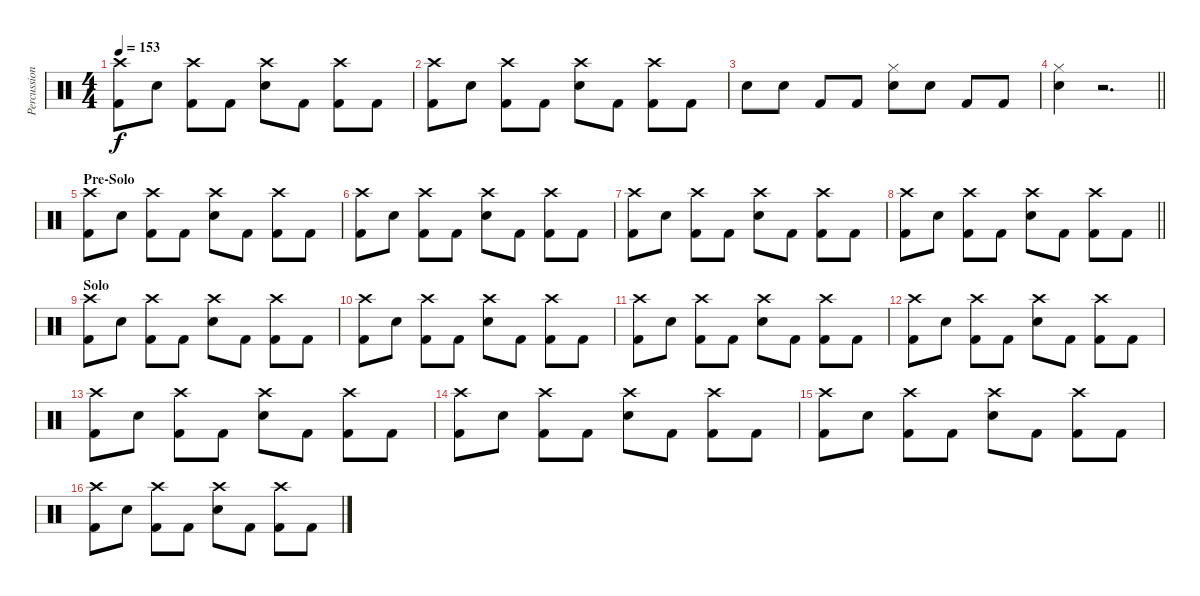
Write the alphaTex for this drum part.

\track ("Percussion" "Percussion") {instrument percussion}
\staff {score}
\articulation defaults
\ts (4 4)
\tempo 153
\clef neutral
\ks c
("Kick (hit) 2" "Crash high (hit)").8{dy f} "Snare (hit) 2".8 ("Kick (hit) 2" "Crash high (hit)").8 "Kick (hit) 2".8 ("Snare (hit) 2" "Crash high (hit)").8 "Kick (hit) 2".8 ("Kick (hit) 2" "Crash high (hit)").8 "Kick (hit) 2".8 |
("Kick (hit) 2" "Crash high (hit)").8 "Snare (hit) 2".8 ("Kick (hit) 2" "Crash high (hit)").8 "Kick (hit) 2".8 ("Snare (hit) 2" "Crash high (hit)").8 "Kick (hit) 2".8 ("Kick (hit) 2" "Crash high (hit)").8 "Kick (hit) 2".8 |
"Snare (hit) 2".8 "Snare (hit) 2".8 "Kick (hit) 2".8 "Kick (hit) 2".8 ("Snare (hit) 2" "Hi-Hat (closed)").8 "Snare (hit) 2".8 "Kick (hit) 2".8 "Kick (hit) 2".8 |
\barLineRight lightlight
("Snare (hit) 2" "Hi-Hat (closed)").4 r.2{d} |
\section ("" "Pre-Solo")
("Kick (hit) 2" "Crash high (hit)").8 "Snare (hit) 2".8 ("Kick (hit) 2" "Crash high (hit)").8 "Kick (hit) 2".8 ("Snare (hit) 2" "Crash high (hit)").8 "Kick (hit) 2".8 ("Kick (hit) 2" "Crash high (hit)").8 "Kick (hit) 2".8 |
("Kick (hit) 2" "Crash high (hit)").8 "Snare (hit) 2".8 ("Kick (hit) 2" "Crash high (hit)").8 "Kick (hit) 2".8 ("Snare (hit) 2" "Crash high (hit)").8 "Kick (hit) 2".8 ("Kick (hit) 2" "Crash high (hit)").8 "Kick (hit) 2".8 |
("Kick (hit) 2" "Crash high (hit)").8 "Snare (hit) 2".8 ("Kick (hit) 2" "Crash high (hit)").8 "Kick (hit) 2".8 ("Snare (hit) 2" "Crash high (hit)").8 "Kick (hit) 2".8 ("Kick (hit) 2" "Crash high (hit)").8 "Kick (hit) 2".8 |
\barLineRight lightlight
("Kick (hit) 2" "Crash high (hit)").8 "Snare (hit) 2".8 ("Kick (hit) 2" "Crash high (hit)").8 "Kick (hit) 2".8 ("Snare (hit) 2" "Crash high (hit)").8 "Kick (hit) 2".8 ("Kick (hit) 2" "Crash high (hit)").8 "Kick (hit) 2".8 |
\section ("" "Solo")
("Kick (hit) 2" "Crash high (hit)").8 "Snare (hit) 2".8 ("Kick (hit) 2" "Crash high (hit)").8 "Kick (hit) 2".8 ("Snare (hit) 2" "Crash high (hit)").8 "Kick (hit) 2".8 ("Kick (hit) 2" "Crash high (hit)").8 "Kick (hit) 2".8 |
("Kick (hit) 2" "Crash high (hit)").8 "Snare (hit) 2".8 ("Kick (hit) 2" "Crash high (hit)").8 "Kick (hit) 2".8 ("Snare (hit) 2" "Crash high (hit)").8 "Kick (hit) 2".8 ("Kick (hit) 2" "Crash high (hit)").8 "Kick (hit) 2".8 |
("Kick (hit) 2" "Crash high (hit)").8 "Snare (hit) 2".8 ("Kick (hit) 2" "Crash high (hit)").8 "Kick (hit) 2".8 ("Snare (hit) 2" "Crash high (hit)").8 "Kick (hit) 2".8 ("Kick (hit) 2" "Crash high (hit)").8 "Kick (hit) 2".8 |
("Kick (hit) 2" "Crash high (hit)").8 "Snare (hit) 2".8 ("Kick (hit) 2" "Crash high (hit)").8 "Kick (hit) 2".8 ("Snare (hit) 2" "Crash high (hit)").8 "Kick (hit) 2".8 ("Kick (hit) 2" "Crash high (hit)").8 "Kick (hit) 2".8 |
("Kick (hit) 2" "Crash high (hit)").8 "Snare (hit) 2".8 ("Kick (hit) 2" "Crash high (hit)").8 "Kick (hit) 2".8 ("Snare (hit) 2" "Crash high (hit)").8 "Kick (hit) 2".8 ("Kick (hit) 2" "Crash high (hit)").8 "Kick (hit) 2".8 |
("Kick (hit) 2" "Crash high (hit)").8 "Snare (hit) 2".8 ("Kick (hit) 2" "Crash high (hit)").8 "Kick (hit) 2".8 ("Snare (hit) 2" "Crash high (hit)").8 "Kick (hit) 2".8 ("Kick (hit) 2" "Crash high (hit)").8 "Kick (hit) 2".8 |
("Kick (hit) 2" "Crash high (hit)").8 "Snare (hit) 2".8 ("Kick (hit) 2" "Crash high (hit)").8 "Kick (hit) 2".8 ("Snare (hit) 2" "Crash high (hit)").8 "Kick (hit) 2".8 ("Kick (hit) 2" "Crash high (hit)").8 "Kick (hit) 2".8 |
("Kick (hit) 2" "Crash high (hit)").8 "Snare (hit) 2".8 ("Kick (hit) 2" "Crash high (hit)").8 "Kick (hit) 2".8 ("Snare (hit) 2" "Crash high (hit)").8 "Kick (hit) 2".8 ("Kick (hit) 2" "Crash high (hit)").8 "Kick (hit) 2".8
